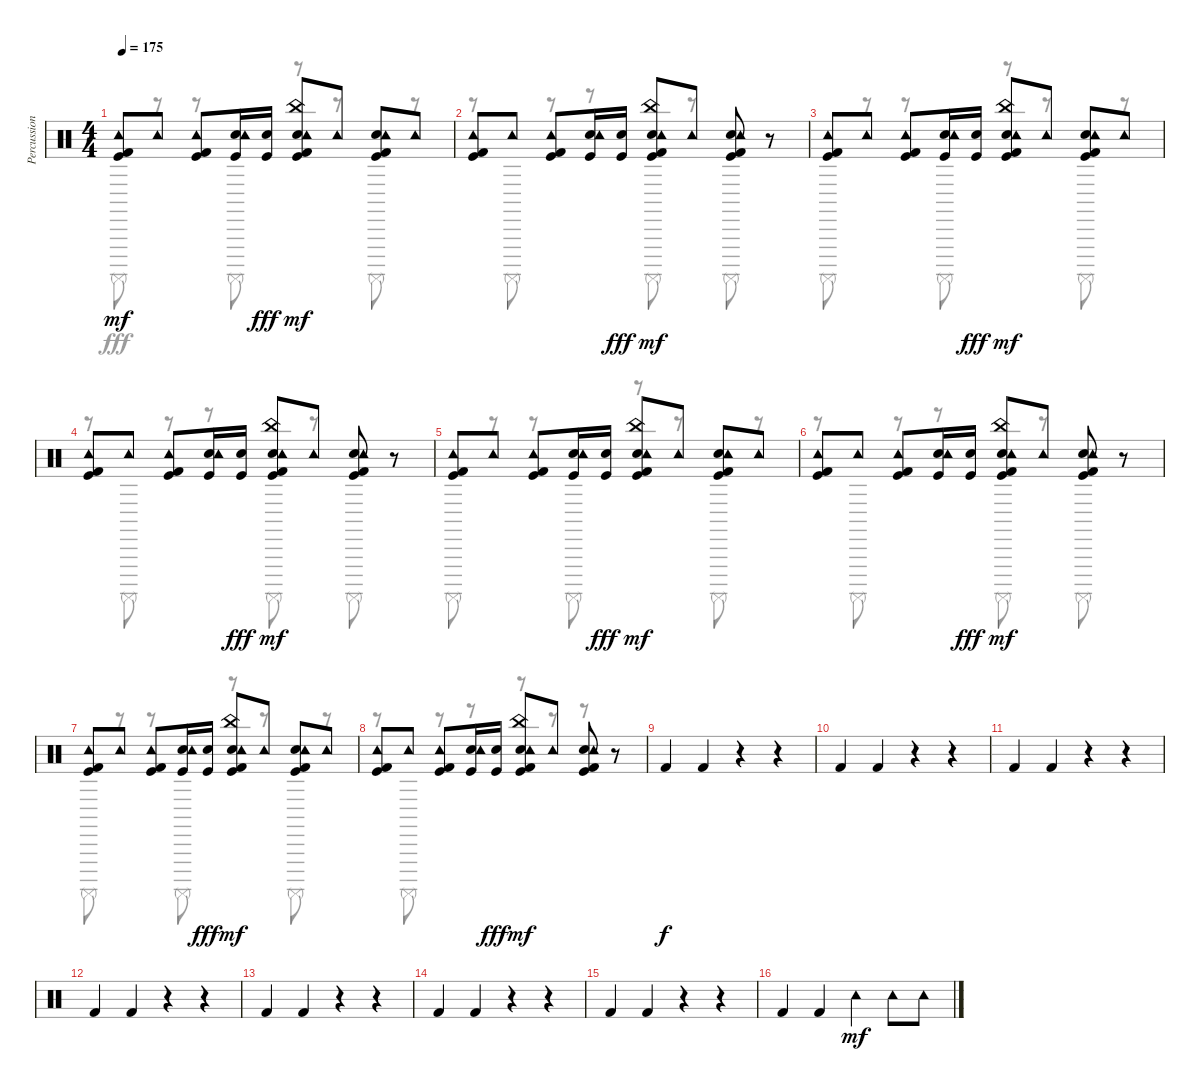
\track ("Percussion" "Percussion") {instrument percussion}
\staff {score}
\articulation defaults
\voice
\ts (4 4)
\tempo 175
\clef neutral
\ks c
("Kick (hit)" "Kick (hit) 2" "Tambourine (hit)").8{dy mf} "Tambourine (hit)".8 ("Kick (hit)" "Kick (hit) 2" "Tambourine (hit)").8 ("Kick (hit)" "Electric Snare (hit)" "Tambourine (hit)").16 ("Kick (hit)" "Electric Snare (hit)").16{dy fff} ("Kick (hit)" "Kick (hit) 2" "Electric Snare (hit)" "China (hit)" "Tambourine (hit)").8{dy mf} "Tambourine (hit)".8 ("Kick (hit)" "Kick (hit) 2" "Electric Snare (hit)" "Tambourine (hit)").8 "Tambourine (hit)".8 |
("Kick (hit)" "Kick (hit) 2" "Tambourine (hit)").8 "Tambourine (hit)".8 ("Kick (hit)" "Kick (hit) 2" "Tambourine (hit)").8 ("Kick (hit)" "Electric Snare (hit)" "Tambourine (hit)").16 ("Kick (hit)" "Electric Snare (hit)").16{dy fff} ("Kick (hit)" "Kick (hit) 2" "Electric Snare (hit)" "China (hit)" "Tambourine (hit)").8{dy mf} "Tambourine (hit)".8 ("Kick (hit)" "Kick (hit) 2" "Electric Snare (hit)" "Tambourine (hit)").8 r.8 |
("Kick (hit)" "Kick (hit) 2" "Tambourine (hit)").8 "Tambourine (hit)".8 ("Kick (hit)" "Kick (hit) 2" "Tambourine (hit)").8 ("Kick (hit)" "Electric Snare (hit)" "Tambourine (hit)").16 ("Kick (hit)" "Electric Snare (hit)").16{dy fff} ("Kick (hit)" "Kick (hit) 2" "Electric Snare (hit)" "China (hit)" "Tambourine (hit)").8{dy mf} "Tambourine (hit)".8 ("Kick (hit)" "Kick (hit) 2" "Electric Snare (hit)" "Tambourine (hit)").8 "Tambourine (hit)".8 |
("Kick (hit)" "Kick (hit) 2" "Tambourine (hit)").8 "Tambourine (hit)".8 ("Kick (hit)" "Kick (hit) 2" "Tambourine (hit)").8 ("Kick (hit)" "Electric Snare (hit)" "Tambourine (hit)").16 ("Kick (hit)" "Electric Snare (hit)").16{dy fff} ("Kick (hit)" "Kick (hit) 2" "Electric Snare (hit)" "China (hit)" "Tambourine (hit)").8{dy mf} "Tambourine (hit)".8 ("Kick (hit)" "Kick (hit) 2" "Electric Snare (hit)" "Tambourine (hit)").8 r.8 |
("Kick (hit)" "Kick (hit) 2" "Tambourine (hit)").8 "Tambourine (hit)".8 ("Kick (hit)" "Kick (hit) 2" "Tambourine (hit)").8 ("Kick (hit)" "Electric Snare (hit)" "Tambourine (hit)").16 ("Kick (hit)" "Electric Snare (hit)").16{dy fff} ("Kick (hit)" "Kick (hit) 2" "Electric Snare (hit)" "China (hit)" "Tambourine (hit)").8{dy mf} "Tambourine (hit)".8 ("Kick (hit)" "Kick (hit) 2" "Electric Snare (hit)" "Tambourine (hit)").8 "Tambourine (hit)".8 |
("Kick (hit)" "Kick (hit) 2" "Tambourine (hit)").8 "Tambourine (hit)".8 ("Kick (hit)" "Kick (hit) 2" "Tambourine (hit)").8 ("Kick (hit)" "Electric Snare (hit)" "Tambourine (hit)").16 ("Kick (hit)" "Electric Snare (hit)").16{dy fff} ("Kick (hit)" "Kick (hit) 2" "Electric Snare (hit)" "China (hit)" "Tambourine (hit)").8{dy mf} "Tambourine (hit)".8 ("Kick (hit)" "Kick (hit) 2" "Electric Snare (hit)" "Tambourine (hit)").8 r.8 |
("Kick (hit)" "Kick (hit) 2" "Tambourine (hit)").8 "Tambourine (hit)".8 ("Kick (hit)" "Kick (hit) 2" "Tambourine (hit)").8 ("Kick (hit)" "Electric Snare (hit)" "Tambourine (hit)").16 ("Kick (hit)" "Electric Snare (hit)").16{dy fff} ("Kick (hit)" "Kick (hit) 2" "Electric Snare (hit)" "China (hit)" "Tambourine (hit)").8{dy mf} "Tambourine (hit)".8 ("Kick (hit)" "Kick (hit) 2" "Electric Snare (hit)" "Tambourine (hit)").8 "Tambourine (hit)".8 |
("Kick (hit)" "Kick (hit) 2" "Tambourine (hit)").8 "Tambourine (hit)".8 ("Kick (hit)" "Kick (hit) 2" "Tambourine (hit)").8 ("Kick (hit)" "Electric Snare (hit)" "Tambourine (hit)").16 ("Kick (hit)" "Electric Snare (hit)").16{dy fff} ("Kick (hit)" "Kick (hit) 2" "Electric Snare (hit)" "China (hit)" "Tambourine (hit)").8{dy mf} "Tambourine (hit)".8 ("Kick (hit)" "Kick (hit) 2" "Electric Snare (hit)" "Tambourine (hit)").8 r.8 |
"Kick (hit) 2".4{dy f} "Kick (hit) 2".4 r.4 r.4 |
"Kick (hit) 2".4 "Kick (hit) 2".4 r.4 r.4 |
"Kick (hit) 2".4 "Kick (hit) 2".4 r.4 r.4 |
"Kick (hit) 2".4 "Kick (hit) 2".4 r.4 r.4 |
"Kick (hit) 2".4 "Kick (hit) 2".4 r.4 r.4 |
"Kick (hit) 2".4 "Kick (hit) 2".4 r.4 r.4 |
"Kick (hit) 2".4 "Kick (hit) 2".4 r.4 r.4 |
"Kick (hit) 2".4 "Kick (hit) 2".4 "Tambourine (hit)".4{dy mf} "Tambourine (hit)".8 "Tambourine (hit)".8
\voice
\clef neutral
\ottava regular
\simile none
\ks c "Surdo (mute)".8{dy fff}
r.8 r.8 "Surdo (mute)".8 r.8 r.8 "Surdo (mute)".8 r.8 |
r.8 "Surdo (mute)".8 r.8 r.8 "Surdo (mute)".8 r.8 "Surdo (mute)".8 r.8 |
"Surdo (mute)".8 r.8 r.8 "Surdo (mute)".8 r.8 r.8 "Surdo (mute)".8 r.8 |
r.8 "Surdo (mute)".8 r.8 r.8 "Surdo (mute)".8 r.8 "Surdo (mute)".8 r.8 |
"Surdo (mute)".8 r.8 r.8 "Surdo (mute)".8 r.8 r.8 "Surdo (mute)".8 r.8 |
r.8 "Surdo (mute)".8 r.8 r.8 "Surdo (mute)".8 r.8 "Surdo (mute)".8 r.8 |
"Surdo (mute)".8 r.8 r.8 "Surdo (mute)".8 r.8 r.8 "Surdo (mute)".8 r.8 |
r.8 "Surdo (mute)".8 r.8 r.8 r.8 r.8 r.8 r.8 |
|
|
|
|
|
|
|
